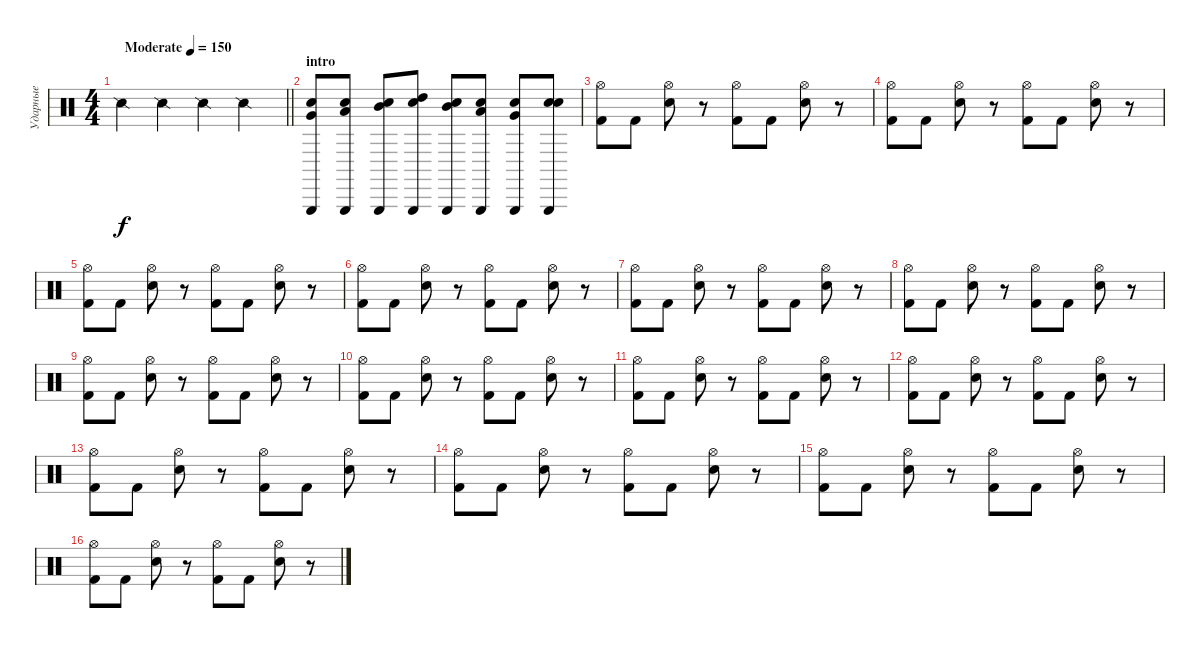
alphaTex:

\track ("Ударные" "Ударные") {instrument percussion}
\staff {score}
\articulation defaults
\ts (4 4)
\tempo (150 "Moderate")
\clef neutral
\barLineRight lightlight
\ks c "Snare (side stick) 2".4{dy f} "Snare (side stick) 2".4 "Snare (side stick) 2".4 "Snare (side stick) 2".4
|
\section ("" "intro")
("Triangle (hit)" "Very Low Tom (hit)" "Snare (hit) 2").8 ("Triangle (hit)" "Low Tom (hit)" "Snare (hit) 2").8 ("Triangle (hit)" "Mid Tom (hit)" "Snare (hit) 2").8 ("Triangle (hit)" "High Tom (hit)" "Snare (hit) 2").8 ("Triangle (hit)" "Mid Tom (hit)" "Snare (hit) 2").8 ("Triangle (hit)" "Low Tom (hit)" "Snare (hit) 2").8 ("Triangle (hit)" "Very Low Tom (hit)" "Snare (hit) 2").8 ("Triangle (hit)" "Electric Snare (hit)" "Snare (hit) 2").8 |
("Kick (hit) 2" "Hi-Hat (open)").8 "Kick (hit) 2".8 ("Snare (hit) 2" "Hi-Hat (open)").8 r.8 ("Kick (hit) 2" "Hi-Hat (open)").8 "Kick (hit) 2".8 ("Snare (hit) 2" "Hi-Hat (open)").8 r.8 |
("Kick (hit) 2" "Hi-Hat (open)").8 "Kick (hit) 2".8 ("Snare (hit) 2" "Hi-Hat (open)").8 r.8 ("Kick (hit) 2" "Hi-Hat (open)").8 "Kick (hit) 2".8 ("Snare (hit) 2" "Hi-Hat (open)").8 r.8 |
("Kick (hit) 2" "Hi-Hat (open)").8 "Kick (hit) 2".8 ("Snare (hit) 2" "Hi-Hat (open)").8 r.8 ("Kick (hit) 2" "Hi-Hat (open)").8 "Kick (hit) 2".8 ("Snare (hit) 2" "Hi-Hat (open)").8 r.8 |
("Kick (hit) 2" "Hi-Hat (open)").8 "Kick (hit) 2".8 ("Snare (hit) 2" "Hi-Hat (open)").8 r.8 ("Kick (hit) 2" "Hi-Hat (open)").8 "Kick (hit) 2".8 ("Snare (hit) 2" "Hi-Hat (open)").8 r.8 |
("Kick (hit) 2" "Hi-Hat (open)").8 "Kick (hit) 2".8 ("Snare (hit) 2" "Hi-Hat (open)").8 r.8 ("Kick (hit) 2" "Hi-Hat (open)").8 "Kick (hit) 2".8 ("Snare (hit) 2" "Hi-Hat (open)").8 r.8 |
("Kick (hit) 2" "Hi-Hat (open)").8 "Kick (hit) 2".8 ("Snare (hit) 2" "Hi-Hat (open)").8 r.8 ("Kick (hit) 2" "Hi-Hat (open)").8 "Kick (hit) 2".8 ("Snare (hit) 2" "Hi-Hat (open)").8 r.8 |
("Kick (hit) 2" "Hi-Hat (open)").8 "Kick (hit) 2".8 ("Snare (hit) 2" "Hi-Hat (open)").8 r.8 ("Kick (hit) 2" "Hi-Hat (open)").8 "Kick (hit) 2".8 ("Snare (hit) 2" "Hi-Hat (open)").8 r.8 |
("Kick (hit) 2" "Hi-Hat (open)").8 "Kick (hit) 2".8 ("Snare (hit) 2" "Hi-Hat (open)").8 r.8 ("Kick (hit) 2" "Hi-Hat (open)").8 "Kick (hit) 2".8 ("Snare (hit) 2" "Hi-Hat (open)").8 r.8 |
("Kick (hit) 2" "Hi-Hat (open)").8 "Kick (hit) 2".8 ("Snare (hit) 2" "Hi-Hat (open)").8 r.8 ("Kick (hit) 2" "Hi-Hat (open)").8 "Kick (hit) 2".8 ("Snare (hit) 2" "Hi-Hat (open)").8 r.8 |
("Kick (hit) 2" "Hi-Hat (open)").8 "Kick (hit) 2".8 ("Snare (hit) 2" "Hi-Hat (open)").8 r.8 ("Kick (hit) 2" "Hi-Hat (open)").8 "Kick (hit) 2".8 ("Snare (hit) 2" "Hi-Hat (open)").8 r.8 |
("Kick (hit) 2" "Hi-Hat (open)").8 "Kick (hit) 2".8 ("Snare (hit) 2" "Hi-Hat (open)").8 r.8 ("Kick (hit) 2" "Hi-Hat (open)").8 "Kick (hit) 2".8 ("Snare (hit) 2" "Hi-Hat (open)").8 r.8 |
("Kick (hit) 2" "Hi-Hat (open)").8 "Kick (hit) 2".8 ("Snare (hit) 2" "Hi-Hat (open)").8 r.8 ("Kick (hit) 2" "Hi-Hat (open)").8 "Kick (hit) 2".8 ("Snare (hit) 2" "Hi-Hat (open)").8 r.8 |
("Kick (hit) 2" "Hi-Hat (open)").8 "Kick (hit) 2".8 ("Snare (hit) 2" "Hi-Hat (open)").8 r.8 ("Kick (hit) 2" "Hi-Hat (open)").8 "Kick (hit) 2".8 ("Snare (hit) 2" "Hi-Hat (open)").8 r.8 |
("Kick (hit) 2" "Hi-Hat (open)").8 "Kick (hit) 2".8 ("Snare (hit) 2" "Hi-Hat (open)").8 r.8 ("Kick (hit) 2" "Hi-Hat (open)").8 "Kick (hit) 2".8 ("Snare (hit) 2" "Hi-Hat (open)").8 r.8
